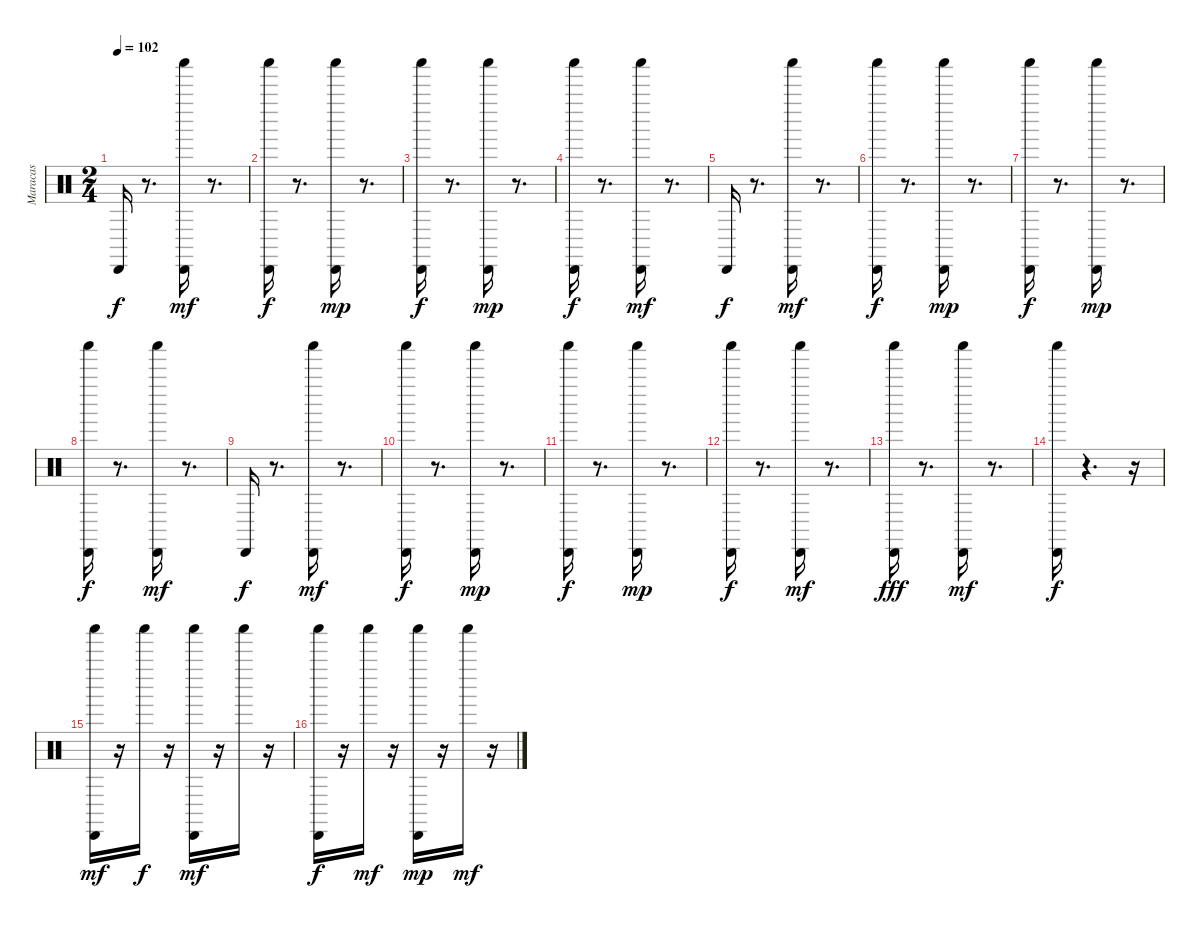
\track ("Maracas" "Maracas") {instrument percussion}
\staff {score}
\articulation defaults
\ts (2 4)
\tempo 102
\clef neutral
\ks c "Cabasa (hit)".16{dy f}
r.8{d} ("Shaker (hit)" "Cabasa (hit)").16{dy mf} r.8{d} |
("Shaker (hit)" "Cabasa (hit)").16{dy f} r.8{d} ("Shaker (hit)" "Cabasa (hit)").16{dy mp} r.8{d} |
("Cabasa (hit)" "Shaker (hit)").16{dy f} r.8{d} ("Cabasa (hit)" "Shaker (hit)").16{dy mp} r.8{d} |
("Cabasa (hit)" "Shaker (hit)").16{dy f} r.8{d} ("Cabasa (hit)" "Shaker (hit)").16{dy mf} r.8{d} |
"Cabasa (hit)".16{dy f} r.8{d} ("Shaker (hit)" "Cabasa (hit)").16{dy mf} r.8{d} |
("Shaker (hit)" "Cabasa (hit)").16{dy f} r.8{d} ("Shaker (hit)" "Cabasa (hit)").16{dy mp} r.8{d} |
("Cabasa (hit)" "Shaker (hit)").16{dy f} r.8{d} ("Cabasa (hit)" "Shaker (hit)").16{dy mp} r.8{d} |
("Cabasa (hit)" "Shaker (hit)").16{dy f} r.8{d} ("Cabasa (hit)" "Shaker (hit)").16{dy mf} r.8{d} |
"Cabasa (hit)".16{dy f} r.8{d} ("Shaker (hit)" "Cabasa (hit)").16{dy mf} r.8{d} |
("Shaker (hit)" "Cabasa (hit)").16{dy f} r.8{d} ("Shaker (hit)" "Cabasa (hit)").16{dy mp} r.8{d} |
("Cabasa (hit)" "Shaker (hit)").16{dy f} r.8{d} ("Cabasa (hit)" "Shaker (hit)").16{dy mp} r.8{d} |
("Cabasa (hit)" "Shaker (hit)").16{dy f} r.8{d} ("Cabasa (hit)" "Shaker (hit)").16{dy mf} r.8{d} |
("Shaker (hit)" "Cabasa (hit)").16{dy fff} r.8{d} ("Shaker (hit)" "Cabasa (hit)").16{dy mf} r.8{d} |
("Shaker (hit)" "Cabasa (hit)").16{dy f} r.4{d} r.16 |
("Shaker (hit)" "Cabasa (hit)").16{dy mf} r.16 "Shaker (hit)".16{dy f} r.16 ("Shaker (hit)" "Cabasa (hit)").16{dy mf} r.16 "Shaker (hit)".16 r.16 |
("Shaker (hit)" "Cabasa (hit)").16{dy f} r.16 "Shaker (hit)".16{dy mf} r.16 ("Shaker (hit)" "Cabasa (hit)").16{dy mp} r.16 "Shaker (hit)".16{dy mf} r.16
